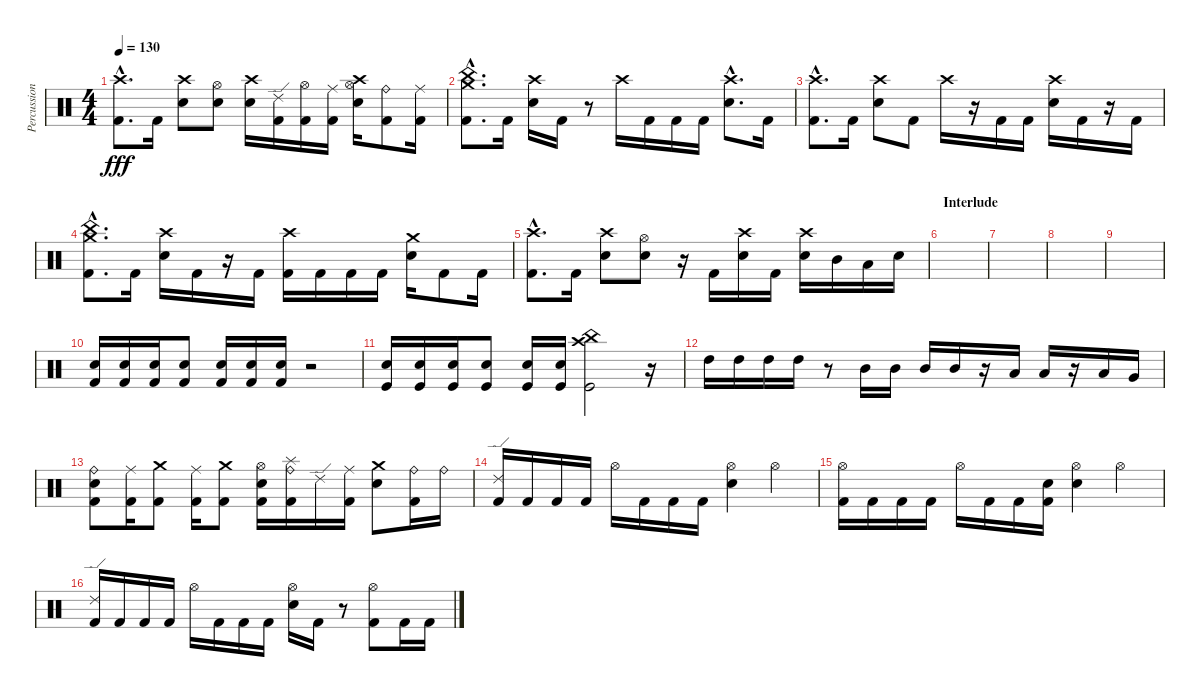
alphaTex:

\track ("Percussion" "Percussion") {instrument percussion}
\staff {score}
\articulation defaults
\ts (4 4)
\tempo 130
\clef neutral
\ks c
("Crash high (hit)"{hac} "Kick (hit) 2"{hac}).8{d dy fff} "Kick (hit) 2".16 ("Crash high (hit)" "Electric Snare (hit)").8 ("Hi-Hat (open)" "Electric Snare (hit)").8 ("Crash high (hit)" "Electric Snare (hit)").16 ("Ride (edge) 2" "Kick (hit) 2").16 ("Hi-Hat (open)" "Kick (hit) 2").16 ("Ride (middle)" "Kick (hit) 2").16 ("Crash high (hit)" "Hi-Hat (open)" "Electric Snare (hit)").16 ("Ride (bell)" "Kick (hit) 2").8 ("Ride (middle)" "Kick (hit) 2").16 |
("Crash medium (hit)"{hac} "China (hit)"{hac} "Kick (hit) 2"{hac}).8{d} "Kick (hit) 2".16 ("Crash high (hit)" "Electric Snare (hit)").16 "Kick (hit) 2".16 r.8 "Crash high (hit)".16 "Kick (hit) 2".16 "Kick (hit) 2".16 "Kick (hit) 2".16 ("Crash high (hit)"{hac} "Electric Snare (hit)"{hac}).8{d} "Kick (hit) 2".16 |
("Crash high (hit)"{hac} "Kick (hit) 2"{hac}).8{d} "Kick (hit) 2".16 ("Crash high (hit)" "Electric Snare (hit)").8 "Kick (hit) 2".8 "Crash high (hit)".16 r.16 "Kick (hit) 2".16 "Kick (hit) 2".16 ("Crash high (hit)" "Electric Snare (hit)").16 "Kick (hit) 2".16 r.16 "Kick (hit) 2".16 |
("Crash medium (hit)"{hac} "China (hit)"{hac} "Kick (hit) 2"{hac}).8{d} "Kick (hit) 2".16 ("Crash high (hit)" "Electric Snare (hit)").16 "Kick (hit) 2".16 r.16 "Kick (hit) 2".16 ("Crash high (hit)" "Kick (hit) 2").16 "Kick (hit) 2".16 "Kick (hit) 2".16 "Kick (hit) 2".16 ("Crash medium (hit)" "Electric Snare (hit)").16 "Kick (hit) 2".8 "Kick (hit) 2".16 |
("Crash high (hit)"{hac} "Kick (hit) 2"{hac}).8{d} "Kick (hit) 2".16 ("Crash high (hit)" "Electric Snare (hit)").8 ("Hi-Hat (open)" "Electric Snare (hit)").8 r.16 "Kick (hit) 2".16 ("Crash high (hit)" "Electric Snare (hit)").16 "Kick (hit) 2".16 ("Crash high (hit)" "Electric Snare (hit)").16 "Mid Tom (hit)".16 "Low Tom (hit)".16 "Electric Snare (hit)".16 |
\section ("" "Interlude")
|
|
|
|
("Electric Snare (hit)" "Kick (hit) 2").16 ("Electric Snare (hit)" "Kick (hit) 2").16 ("Electric Snare (hit)" "Kick (hit) 2").16 ("Electric Snare (hit)" "Kick (hit) 2").8 ("Electric Snare (hit)" "Kick (hit) 2").16 ("Electric Snare (hit)" "Kick (hit) 2").16 ("Electric Snare (hit)" "Kick (hit) 2").16 r.2 |
("Electric Snare (hit)" "Kick (hit)").16 ("Electric Snare (hit)" "Kick (hit)").16 ("Electric Snare (hit)" "Kick (hit)").16 ("Electric Snare (hit)" "Kick (hit)").8 ("Electric Snare (hit)" "Kick (hit)").16 ("Electric Snare (hit)" "Kick (hit)").16 ("Crash high (hit)" "China (hit)" "Kick (hit)").2 r.16 |
"High Tom (hit)".16 "High Tom (hit)".16 "High Tom (hit)".16 "High Tom (hit)".16 r.8 "Mid Tom (hit)".16 "Mid Tom (hit)".16 "Mid Tom (hit)".16 "Mid Tom (hit)".16 r.16 "Low Tom (hit)".16 "Low Tom (hit)".16 r.16 "Low Tom (hit)".16 "Very Low Tom (hit)".16 |
("Ride (bell)" "Electric Snare (hit)" "Kick (hit) 2").8 ("Ride (middle)" "Kick (hit) 2").16 ("Crash medium (hit)" "Kick (hit) 2").8 ("Ride (middle)" "Kick (hit) 2").16 ("Crash medium (hit)" "Kick (hit) 2").8 ("Hi-Hat (open)" "Electric Snare (hit)" "Kick (hit) 2").16 ("Splash (hit)" "Ride (bell)" "Kick (hit) 2").16 "Ride (edge) 2".16 ("Ride (middle)" "Kick (hit) 2").16 ("Crash medium (hit)" "Electric Snare (hit)").8 ("Ride (bell)" "Kick (hit) 2").16 "Ride (bell)".16 |
("Ride (edge) 2" "Kick (hit) 2").16 "Kick (hit) 2".16 "Kick (hit) 2".16 "Kick (hit) 2".16 "Hi-Hat (open)".16 "Kick (hit) 2".16 "Kick (hit) 2".16 "Kick (hit) 2".16 ("Hi-Hat (open)" "Electric Snare (hit)").4 "Hi-Hat (open)".4 |
("Hi-Hat (open)" "Kick (hit) 2").16 "Kick (hit) 2".16 "Kick (hit) 2".16 "Kick (hit) 2".16 "Hi-Hat (open)".16 "Kick (hit) 2".16 "Kick (hit) 2".16 ("Electric Snare (hit)" "Kick (hit) 2").16 ("Hi-Hat (open)" "Electric Snare (hit)").4 "Hi-Hat (open)".4 |
("Ride (edge) 2" "Kick (hit) 2").16 "Kick (hit) 2".16 "Kick (hit) 2".16 "Kick (hit) 2".16 "Hi-Hat (open)".16 "Kick (hit) 2".16 "Kick (hit) 2".16 "Kick (hit) 2".16 ("Hi-Hat (open)" "Electric Snare (hit)").16 "Kick (hit) 2".16 r.8 ("Hi-Hat (open)" "Kick (hit) 2").8 "Kick (hit) 2".16 "Kick (hit) 2".16
